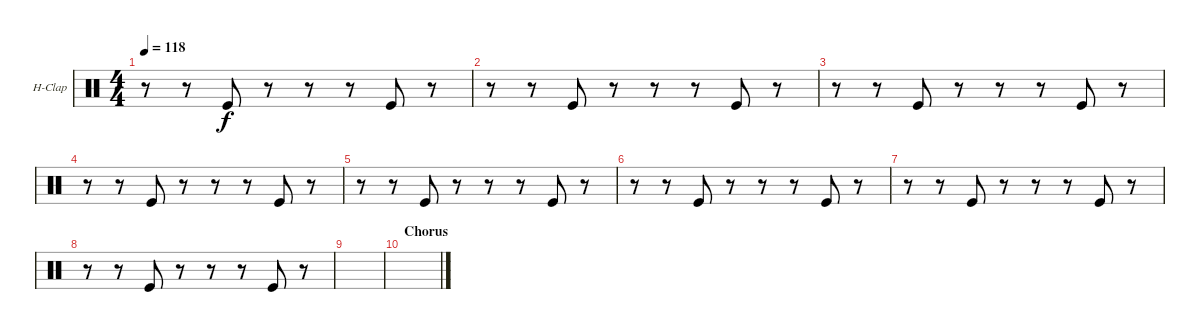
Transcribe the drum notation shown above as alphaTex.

\defaultSystemsLayout 4
\bracketExtendMode groupsimilarinstruments
\firstSystemTrackNameOrientation horizontal
\otherSystemsTrackNameOrientation horizontal
\track ("Hand Clap" "H-Clap") {instrument percussion}
\staff {score}
\articulation defaults
\ts (4 4)
\tempo 118
\clef neutral
\ks c
r.8{dy f} r.8 "Kick (hit)".8 r.8 r.8 r.8 "Kick (hit)".8 r.8 |
r.8 r.8 "Kick (hit)".8 r.8 r.8 r.8 "Kick (hit)".8 r.8 |
r.8 r.8 "Kick (hit)".8 r.8 r.8 r.8 "Kick (hit)".8 r.8 |
r.8 r.8 "Kick (hit)".8 r.8 r.8 r.8 "Kick (hit)".8 r.8 |
r.8 r.8 "Kick (hit)".8 r.8 r.8 r.8 "Kick (hit)".8 r.8 |
r.8 r.8 "Kick (hit)".8 r.8 r.8 r.8 "Kick (hit)".8 r.8 |
r.8 r.8 "Kick (hit)".8 r.8 r.8 r.8 "Kick (hit)".8 r.8 |
r.8 r.8 "Kick (hit)".8 r.8 r.8 r.8 "Kick (hit)".8 r.8 |
|
\section ("" "Chorus")
